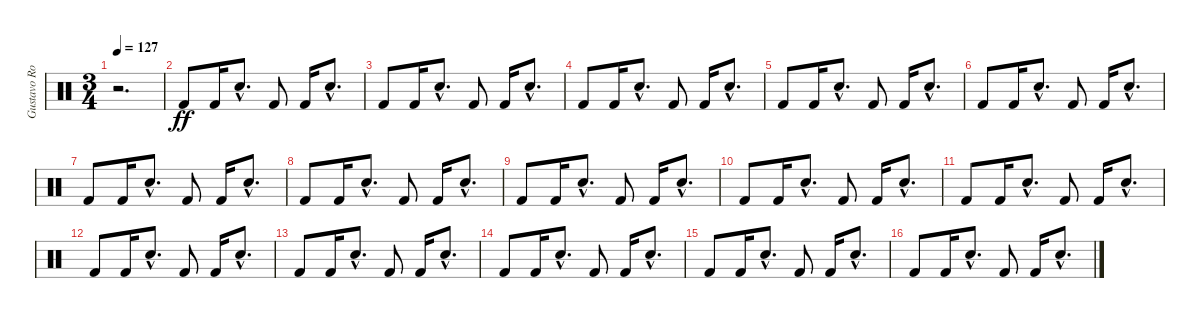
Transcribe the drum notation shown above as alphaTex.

\track ("Gustavo Rowek 2" "Gustavo Ro") {instrument percussion}
\staff {score}
\articulation defaults
\ts (3 4)
\tempo 127
\clef neutral
\ks c
r.2{d dy f} |
"Kick (hit) 2".8{dy ff} "Kick (hit) 2".16 "Snare (hit) 2"{hac}.8{d} "Kick (hit) 2".8 "Kick (hit) 2".16 "Snare (hit) 2"{hac}.8{d} |
"Kick (hit) 2".8 "Kick (hit) 2".16 "Snare (hit) 2"{hac}.8{d} "Kick (hit) 2".8 "Kick (hit) 2".16 "Snare (hit) 2"{hac}.8{d} |
"Kick (hit) 2".8 "Kick (hit) 2".16 "Snare (hit) 2"{hac}.8{d} "Kick (hit) 2".8 "Kick (hit) 2".16 "Snare (hit) 2"{hac}.8{d} |
"Kick (hit) 2".8 "Kick (hit) 2".16 "Snare (hit) 2"{hac}.8{d} "Kick (hit) 2".8 "Kick (hit) 2".16 "Snare (hit) 2"{hac}.8{d} |
"Kick (hit) 2".8 "Kick (hit) 2".16 "Snare (hit) 2"{hac}.8{d} "Kick (hit) 2".8 "Kick (hit) 2".16 "Snare (hit) 2"{hac}.8{d} |
"Kick (hit) 2".8 "Kick (hit) 2".16 "Snare (hit) 2"{hac}.8{d} "Kick (hit) 2".8 "Kick (hit) 2".16 "Snare (hit) 2"{hac}.8{d} |
"Kick (hit) 2".8 "Kick (hit) 2".16 "Snare (hit) 2"{hac}.8{d} "Kick (hit) 2".8 "Kick (hit) 2".16 "Snare (hit) 2"{hac}.8{d} |
"Kick (hit) 2".8 "Kick (hit) 2".16 "Snare (hit) 2"{hac}.8{d} "Kick (hit) 2".8 "Kick (hit) 2".16 "Snare (hit) 2"{hac}.8{d} |
"Kick (hit) 2".8 "Kick (hit) 2".16 "Snare (hit) 2"{hac}.8{d} "Kick (hit) 2".8 "Kick (hit) 2".16 "Snare (hit) 2"{hac}.8{d} |
"Kick (hit) 2".8 "Kick (hit) 2".16 "Snare (hit) 2"{hac}.8{d} "Kick (hit) 2".8 "Kick (hit) 2".16 "Snare (hit) 2"{hac}.8{d} |
"Kick (hit) 2".8 "Kick (hit) 2".16 "Snare (hit) 2"{hac}.8{d} "Kick (hit) 2".8 "Kick (hit) 2".16 "Snare (hit) 2"{hac}.8{d} |
"Kick (hit) 2".8 "Kick (hit) 2".16 "Snare (hit) 2"{hac}.8{d} "Kick (hit) 2".8 "Kick (hit) 2".16 "Snare (hit) 2"{hac}.8{d} |
"Kick (hit) 2".8 "Kick (hit) 2".16 "Snare (hit) 2"{hac}.8{d} "Kick (hit) 2".8 "Kick (hit) 2".16 "Snare (hit) 2"{hac}.8{d} |
"Kick (hit) 2".8 "Kick (hit) 2".16 "Snare (hit) 2"{hac}.8{d} "Kick (hit) 2".8 "Kick (hit) 2".16 "Snare (hit) 2"{hac}.8{d} |
"Kick (hit) 2".8 "Kick (hit) 2".16 "Snare (hit) 2"{hac}.8{d} "Kick (hit) 2".8 "Kick (hit) 2".16 "Snare (hit) 2"{hac}.8{d}
